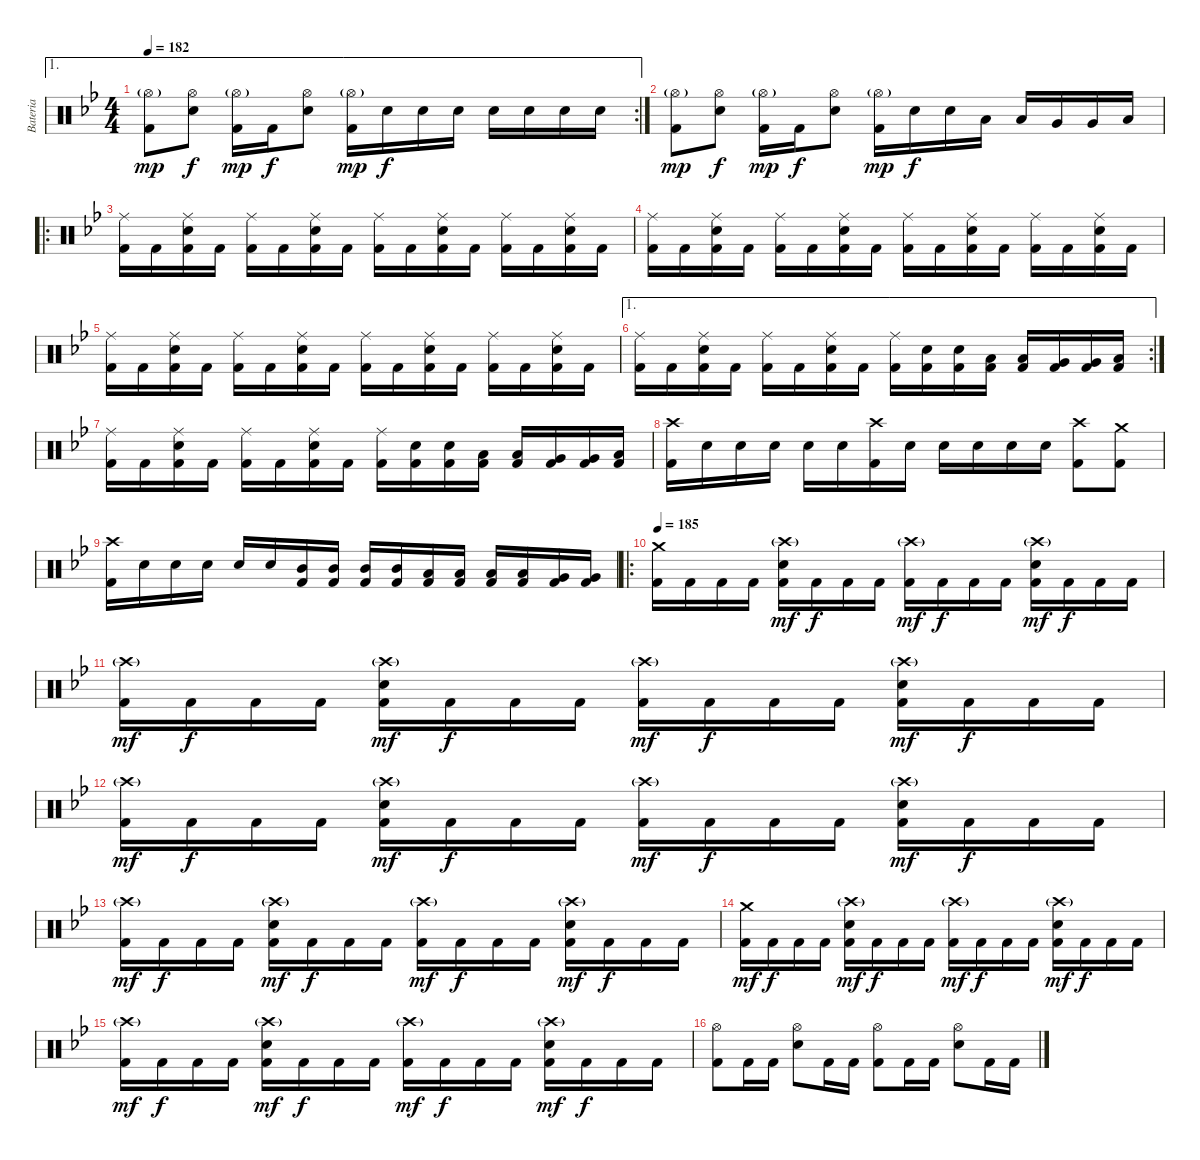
\track ("Bateria" "Bateria") {instrument percussion}
\staff {score}
\articulation defaults
\ae 1
\rc 2
\ts (4 4)
\tempo 182
\clef neutral
\ks gminor
("Hi-Hat (open)"{g} "Kick (hit) 2").8{dy mp} ("Hi-Hat (open)" "Electric Snare (hit)").8{dy f} ("Hi-Hat (open)"{g} "Kick (hit) 2").16{dy mp} "Kick (hit) 2".16{dy f} ("Hi-Hat (open)" "Electric Snare (hit)").8 ("Hi-Hat (open)"{g} "Kick (hit) 2").16{dy mp} "Electric Snare (hit)".16{dy f} "Electric Snare (hit)".16 "Electric Snare (hit)".16 "Electric Snare (hit)".16 "Electric Snare (hit)".16 "Electric Snare (hit)".16 "Electric Snare (hit)".16 |
("Hi-Hat (open)"{g} "Kick (hit) 2").8{dy mp} ("Hi-Hat (open)" "Electric Snare (hit)").8{dy f} ("Hi-Hat (open)"{g} "Kick (hit) 2").16{dy mp} "Kick (hit) 2".16{dy f} ("Hi-Hat (open)" "Electric Snare (hit)").8 ("Hi-Hat (open)"{g} "Kick (hit) 2").16{dy mp} "Electric Snare (hit)".16{dy f} "Electric Snare (hit)".16 "Low Tom (hit)".16 "Low Tom (hit)".16 "Very Low Tom (hit)".16 "Very Low Tom (hit)".16 "Low Floor Tom (hit)".16 |
\ro
("Ride (middle)" "Kick (hit) 2").16 "Kick (hit) 2".16 ("Ride (middle)" "Electric Snare (hit)" "Kick (hit) 2").16 "Kick (hit) 2".16 ("Ride (middle)" "Kick (hit) 2").16 "Kick (hit) 2".16 ("Ride (middle)" "Electric Snare (hit)" "Kick (hit) 2").16 "Kick (hit) 2".16 ("Ride (middle)" "Kick (hit) 2").16 "Kick (hit) 2".16 ("Ride (middle)" "Electric Snare (hit)" "Kick (hit) 2").16 "Kick (hit) 2".16 ("Ride (middle)" "Kick (hit) 2").16 "Kick (hit) 2".16 ("Ride (middle)" "Electric Snare (hit)" "Kick (hit) 2").16 "Kick (hit) 2".16 |
("Ride (middle)" "Kick (hit) 2").16 "Kick (hit) 2".16 ("Ride (middle)" "Electric Snare (hit)" "Kick (hit) 2").16 "Kick (hit) 2".16 ("Ride (middle)" "Kick (hit) 2").16 "Kick (hit) 2".16 ("Ride (middle)" "Electric Snare (hit)" "Kick (hit) 2").16 "Kick (hit) 2".16 ("Ride (middle)" "Kick (hit) 2").16 "Kick (hit) 2".16 ("Ride (middle)" "Electric Snare (hit)" "Kick (hit) 2").16 "Kick (hit) 2".16 ("Ride (middle)" "Kick (hit) 2").16 "Kick (hit) 2".16 ("Ride (middle)" "Electric Snare (hit)" "Kick (hit) 2").16 "Kick (hit) 2".16 |
("Ride (middle)" "Kick (hit) 2").16 "Kick (hit) 2".16 ("Ride (middle)" "Electric Snare (hit)" "Kick (hit) 2").16 "Kick (hit) 2".16 ("Ride (middle)" "Kick (hit) 2").16 "Kick (hit) 2".16 ("Ride (middle)" "Electric Snare (hit)" "Kick (hit) 2").16 "Kick (hit) 2".16 ("Ride (middle)" "Kick (hit) 2").16 "Kick (hit) 2".16 ("Ride (middle)" "Electric Snare (hit)" "Kick (hit) 2").16 "Kick (hit) 2".16 ("Ride (middle)" "Kick (hit) 2").16 "Kick (hit) 2".16 ("Ride (middle)" "Electric Snare (hit)" "Kick (hit) 2").16 "Kick (hit) 2".16 |
\ae 1
\rc 2
("Ride (middle)" "Kick (hit) 2").16 "Kick (hit) 2".16 ("Ride (middle)" "Electric Snare (hit)" "Kick (hit) 2").16 "Kick (hit) 2".16 ("Ride (middle)" "Kick (hit) 2").16 "Kick (hit) 2".16 ("Ride (middle)" "Electric Snare (hit)" "Kick (hit) 2").16 "Kick (hit) 2".16 ("Ride (middle)" "Kick (hit) 2").16 ("Electric Snare (hit)" "Kick (hit) 2").16 ("Electric Snare (hit)" "Kick (hit) 2").16 ("Low Tom (hit)" "Kick (hit) 2").16 ("Low Tom (hit)" "Kick (hit) 2").16 ("Very Low Tom (hit)" "Kick (hit) 2").16 ("Very Low Tom (hit)" "Kick (hit) 2").16 ("Low Floor Tom (hit)" "Kick (hit) 2").16 |
("Ride (middle)" "Kick (hit) 2").16 "Kick (hit) 2".16 ("Ride (middle)" "Electric Snare (hit)" "Kick (hit) 2").16 "Kick (hit) 2".16 ("Ride (middle)" "Kick (hit) 2").16 "Kick (hit) 2".16 ("Ride (middle)" "Electric Snare (hit)" "Kick (hit) 2").16 "Kick (hit) 2".16 ("Ride (middle)" "Kick (hit) 2").16 ("Electric Snare (hit)" "Kick (hit) 2").16 ("Electric Snare (hit)" "Kick (hit) 2").16 ("Low Tom (hit)" "Kick (hit) 2").16 ("Low Tom (hit)" "Kick (hit) 2").16 ("Very Low Tom (hit)" "Kick (hit) 2").16 ("Very Low Tom (hit)" "Kick (hit) 2").16 ("Low Floor Tom (hit)" "Kick (hit) 2").16 |
("Crash high (hit)" "Kick (hit) 2").16 "Electric Snare (hit)".16 "Electric Snare (hit)".16 "Electric Snare (hit)".16 "Electric Snare (hit)".16 "Electric Snare (hit)".16 ("Crash high (hit)" "Kick (hit) 2").16 "Electric Snare (hit)".16 "Electric Snare (hit)".16 "Electric Snare (hit)".16 "Electric Snare (hit)".16 "Electric Snare (hit)".16 ("Crash high (hit)" "Kick (hit) 2").8 ("Crash medium (hit)" "Kick (hit) 2").8 |
("Crash high (hit)" "Kick (hit) 2").16 "Electric Snare (hit)".16 "Electric Snare (hit)".16 "Electric Snare (hit)".16 "Electric Snare (hit)".16 "Electric Snare (hit)".16 ("Mid Tom (hit)" "Kick (hit) 2").16 ("Mid Tom (hit)" "Kick (hit) 2").16 ("Mid Tom (hit)" "Kick (hit) 2").16 ("Mid Tom (hit)" "Kick (hit) 2").16 ("Low Tom (hit)" "Kick (hit) 2").16 ("Low Tom (hit)" "Kick (hit) 2").16 ("Low Tom (hit)" "Kick (hit) 2").16 ("Low Tom (hit)" "Kick (hit) 2").16 ("Very Low Tom (hit)" "Kick (hit) 2").16 ("Very Low Tom (hit)" "Kick (hit) 2").16 |
\ro
\tempo 185
("Crash medium (hit)" "Kick (hit) 2").16 "Kick (hit) 2".16 "Kick (hit) 2".16 "Kick (hit) 2".16 ("Crash high (hit)"{g} "Electric Snare (hit)" "Kick (hit) 2").16{dy mf} "Kick (hit) 2".16{dy f} "Kick (hit) 2".16 "Kick (hit) 2".16 ("Crash high (hit)"{g} "Kick (hit) 2").16{dy mf} "Kick (hit) 2".16{dy f} "Kick (hit) 2".16 "Kick (hit) 2".16 ("Crash high (hit)"{g} "Electric Snare (hit)" "Kick (hit) 2").16{dy mf} "Kick (hit) 2".16{dy f} "Kick (hit) 2".16 "Kick (hit) 2".16 |
("Crash high (hit)"{g} "Kick (hit) 2").16{dy mf} "Kick (hit) 2".16{dy f} "Kick (hit) 2".16 "Kick (hit) 2".16 ("Crash high (hit)"{g} "Electric Snare (hit)" "Kick (hit) 2").16{dy mf} "Kick (hit) 2".16{dy f} "Kick (hit) 2".16 "Kick (hit) 2".16 ("Crash high (hit)"{g} "Kick (hit) 2").16{dy mf} "Kick (hit) 2".16{dy f} "Kick (hit) 2".16 "Kick (hit) 2".16 ("Crash high (hit)"{g} "Electric Snare (hit)" "Kick (hit) 2").16{dy mf} "Kick (hit) 2".16{dy f} "Kick (hit) 2".16 "Kick (hit) 2".16 |
("Crash high (hit)"{g} "Kick (hit) 2").16{dy mf} "Kick (hit) 2".16{dy f} "Kick (hit) 2".16 "Kick (hit) 2".16 ("Crash high (hit)"{g} "Electric Snare (hit)" "Kick (hit) 2").16{dy mf} "Kick (hit) 2".16{dy f} "Kick (hit) 2".16 "Kick (hit) 2".16 ("Crash high (hit)"{g} "Kick (hit) 2").16{dy mf} "Kick (hit) 2".16{dy f} "Kick (hit) 2".16 "Kick (hit) 2".16 ("Crash high (hit)"{g} "Electric Snare (hit)" "Kick (hit) 2").16{dy mf} "Kick (hit) 2".16{dy f} "Kick (hit) 2".16 "Kick (hit) 2".16 |
("Crash high (hit)"{g} "Kick (hit) 2").16{dy mf} "Kick (hit) 2".16{dy f} "Kick (hit) 2".16 "Kick (hit) 2".16 ("Crash high (hit)"{g} "Electric Snare (hit)" "Kick (hit) 2").16{dy mf} "Kick (hit) 2".16{dy f} "Kick (hit) 2".16 "Kick (hit) 2".16 ("Crash high (hit)"{g} "Kick (hit) 2").16{dy mf} "Kick (hit) 2".16{dy f} "Kick (hit) 2".16 "Kick (hit) 2".16 ("Crash high (hit)"{g} "Electric Snare (hit)" "Kick (hit) 2").16{dy mf} "Kick (hit) 2".16{dy f} "Kick (hit) 2".16 "Kick (hit) 2".16 |
("Crash medium (hit)" "Kick (hit) 2").16{dy mf} "Kick (hit) 2".16{dy f} "Kick (hit) 2".16 "Kick (hit) 2".16 ("Crash high (hit)"{g} "Electric Snare (hit)" "Kick (hit) 2").16{dy mf} "Kick (hit) 2".16{dy f} "Kick (hit) 2".16 "Kick (hit) 2".16 ("Crash high (hit)"{g} "Kick (hit) 2").16{dy mf} "Kick (hit) 2".16{dy f} "Kick (hit) 2".16 "Kick (hit) 2".16 ("Crash high (hit)"{g} "Electric Snare (hit)" "Kick (hit) 2").16{dy mf} "Kick (hit) 2".16{dy f} "Kick (hit) 2".16 "Kick (hit) 2".16 |
("Crash high (hit)"{g} "Kick (hit) 2").16{dy mf} "Kick (hit) 2".16{dy f} "Kick (hit) 2".16 "Kick (hit) 2".16 ("Crash high (hit)"{g} "Electric Snare (hit)" "Kick (hit) 2").16{dy mf} "Kick (hit) 2".16{dy f} "Kick (hit) 2".16 "Kick (hit) 2".16 ("Crash high (hit)"{g} "Kick (hit) 2").16{dy mf} "Kick (hit) 2".16{dy f} "Kick (hit) 2".16 "Kick (hit) 2".16 ("Crash high (hit)"{g} "Electric Snare (hit)" "Kick (hit) 2").16{dy mf} "Kick (hit) 2".16{dy f} "Kick (hit) 2".16 "Kick (hit) 2".16 |
("Hi-Hat (open)" "Kick (hit) 2").8 "Kick (hit) 2".16 "Kick (hit) 2".16 ("Hi-Hat (open)" "Electric Snare (hit)").8 "Kick (hit) 2".16 "Kick (hit) 2".16 ("Hi-Hat (open)" "Kick (hit) 2").8 "Kick (hit) 2".16 "Kick (hit) 2".16 ("Hi-Hat (open)" "Electric Snare (hit)").8 "Kick (hit) 2".16 "Kick (hit) 2".16
